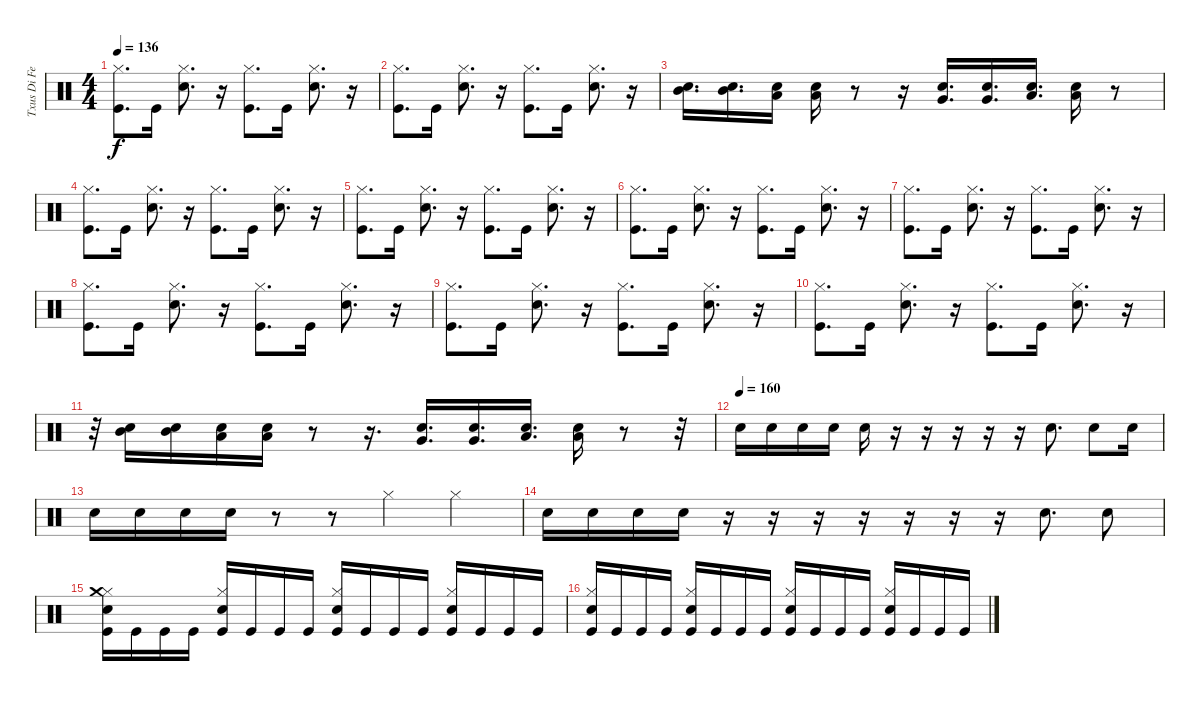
\track ("Txus Di Fellatio" "Txus Di Fe") {instrument percussion}
\staff {score}
\articulation defaults
\ts (4 4)
\tempo 136
\clef neutral
\ks c
("Kick (hit)" "Hi-Hat (closed)").8{d dy f} "Kick (hit)".16 ("Snare (hit) 2" "Hi-Hat (closed)").8{d} r.16 ("Kick (hit)" "Hi-Hat (closed)").8{d} "Kick (hit)".16 ("Snare (hit) 2" "Hi-Hat (closed)").8{d} r.16 |
("Kick (hit)" "Hi-Hat (closed)").8{d} "Kick (hit)".16 ("Snare (hit) 2" "Hi-Hat (closed)").8{d} r.16 ("Kick (hit)" "Hi-Hat (closed)").8{d} "Kick (hit)".16 ("Snare (hit) 2" "Hi-Hat (closed)").8{d} r.16 |
("Snare (hit) 2" "Mid Tom (hit)").16{d} ("Snare (hit) 2" "Mid Tom (hit)").16{d} ("Snare (hit) 2" "Low Tom (hit)").16 ("Snare (hit) 2" "Low Tom (hit)").16 r.8 r.16 ("Snare (hit) 2" "Very Low Tom (hit)").16{d} ("Snare (hit) 2" "Very Low Tom (hit)").16{d} ("Snare (hit) 2" "Low Tom (hit)").16{d} ("Snare (hit) 2" "Low Tom (hit)").16 r.8 |
("Kick (hit)" "Hi-Hat (closed)").8{d} "Kick (hit)".16 ("Snare (hit) 2" "Hi-Hat (closed)").8{d} r.16 ("Kick (hit)" "Hi-Hat (closed)").8{d} "Kick (hit)".16 ("Snare (hit) 2" "Hi-Hat (closed)").8{d} r.16 |
("Kick (hit)" "Hi-Hat (closed)").8{d} "Kick (hit)".16 ("Snare (hit) 2" "Hi-Hat (closed)").8{d} r.16 ("Kick (hit)" "Hi-Hat (closed)").8{d} "Kick (hit)".16 ("Snare (hit) 2" "Hi-Hat (closed)").8{d} r.16 |
("Kick (hit)" "Hi-Hat (closed)").8{d} "Kick (hit)".16 ("Snare (hit) 2" "Hi-Hat (closed)").8{d} r.16 ("Kick (hit)" "Hi-Hat (closed)").8{d} "Kick (hit)".16 ("Snare (hit) 2" "Hi-Hat (closed)").8{d} r.16 |
("Kick (hit)" "Hi-Hat (closed)").8{d} "Kick (hit)".16 ("Snare (hit) 2" "Hi-Hat (closed)").8{d} r.16 ("Kick (hit)" "Hi-Hat (closed)").8{d} "Kick (hit)".16 ("Snare (hit) 2" "Hi-Hat (closed)").8{d} r.16 |
("Kick (hit)" "Hi-Hat (closed)").8{d} "Kick (hit)".16 ("Snare (hit) 2" "Hi-Hat (closed)").8{d} r.16 ("Kick (hit)" "Hi-Hat (closed)").8{d} "Kick (hit)".16 ("Snare (hit) 2" "Hi-Hat (closed)").8{d} r.16 |
("Kick (hit)" "Hi-Hat (closed)").8{d} "Kick (hit)".16 ("Snare (hit) 2" "Hi-Hat (closed)").8{d} r.16 ("Kick (hit)" "Hi-Hat (closed)").8{d} "Kick (hit)".16 ("Snare (hit) 2" "Hi-Hat (closed)").8{d} r.16 |
("Kick (hit)" "Hi-Hat (closed)").8{d} "Kick (hit)".16 ("Snare (hit) 2" "Hi-Hat (closed)").8{d} r.16 ("Kick (hit)" "Hi-Hat (closed)").8{d} "Kick (hit)".16 ("Snare (hit) 2" "Hi-Hat (closed)").8{d} r.16 |
r.32 ("Snare (hit) 2" "Mid Tom (hit)").16 ("Snare (hit) 2" "Mid Tom (hit)").16 ("Snare (hit) 2" "Low Tom (hit)").16 ("Snare (hit) 2" "Low Tom (hit)").16 r.8 r.16{d} ("Snare (hit) 2" "Very Low Tom (hit)").16{d} ("Snare (hit) 2" "Very Low Tom (hit)").16{d} ("Snare (hit) 2" "Low Tom (hit)").16{d} ("Snare (hit) 2" "Low Tom (hit)").16 r.8 r.32 |
\tempo (160)
"Snare (hit) 2".16 "Snare (hit) 2".16 "Snare (hit) 2".16 "Snare (hit) 2".16 "Snare (hit) 2".16 r.16 r.16 r.16 r.16 r.16 "Snare (hit) 2".8{d} "Snare (hit) 2".8 "Snare (hit) 2".16 |
"Snare (hit) 2".16 "Snare (hit) 2".16 "Snare (hit) 2".16 "Snare (hit) 2".16 r.8 r.8 "Hi-Hat (closed)".4 "Hi-Hat (closed)".4 |
"Snare (hit) 2".16 "Snare (hit) 2".16 "Snare (hit) 2".16 "Snare (hit) 2".16 r.16 r.16 r.16 r.16 r.16 r.16 r.16 "Snare (hit) 2".8{d} "Snare (hit) 2".8 |
("Hi-Hat (closed)" "Snare (hit) 2" "Crash medium (hit)" "Kick (hit)").16 "Kick (hit)".16 "Kick (hit)".16 "Kick (hit)".16 ("Hi-Hat (closed)" "Snare (hit) 2" "Kick (hit)").16 "Kick (hit)".16 "Kick (hit)".16 "Kick (hit)".16 ("Hi-Hat (closed)" "Snare (hit) 2" "Kick (hit)").16 "Kick (hit)".16 "Kick (hit)".16 "Kick (hit)".16 ("Hi-Hat (closed)" "Snare (hit) 2" "Kick (hit)").16 "Kick (hit)".16 "Kick (hit)".16 "Kick (hit)".16 |
("Hi-Hat (closed)" "Snare (hit) 2" "Kick (hit)").16 "Kick (hit)".16 "Kick (hit)".16 "Kick (hit)".16 ("Hi-Hat (closed)" "Snare (hit) 2" "Kick (hit)").16 "Kick (hit)".16 "Kick (hit)".16 "Kick (hit)".16 ("Hi-Hat (closed)" "Snare (hit) 2" "Kick (hit)").16 "Kick (hit)".16 "Kick (hit)".16 "Kick (hit)".16 ("Hi-Hat (closed)" "Snare (hit) 2" "Kick (hit)").16 "Kick (hit)".16 "Kick (hit)".16 "Kick (hit)".16
